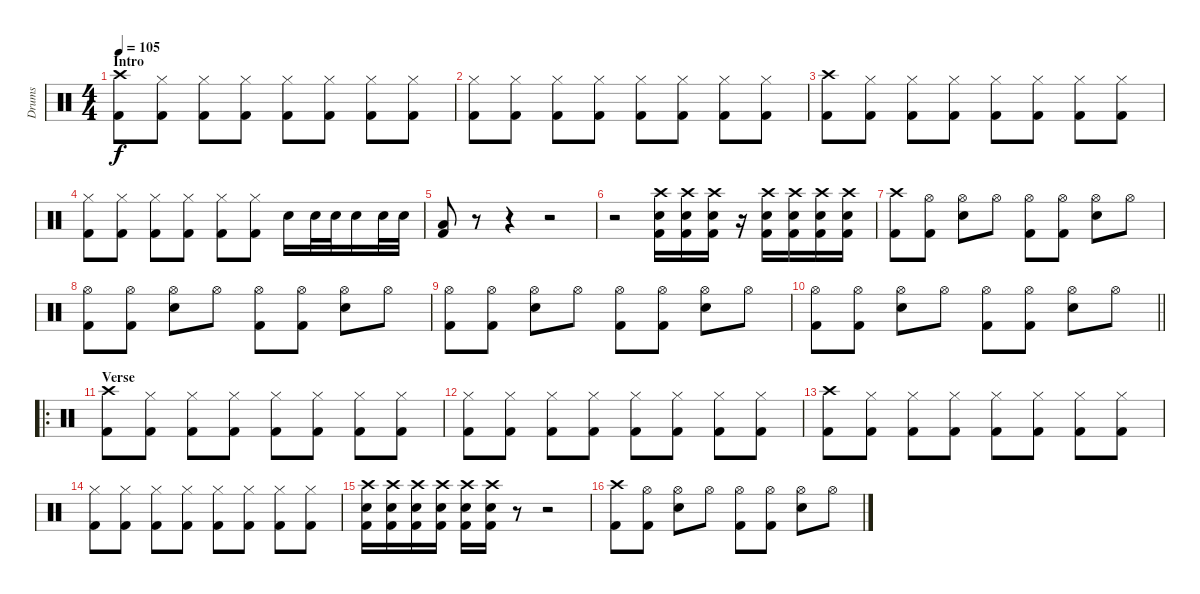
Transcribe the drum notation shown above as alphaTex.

\track ("Drums" "Drums") {instrument percussion}
\staff {score}
\articulation defaults
\ts (4 4)
\section ("" "Intro")
\tempo 105
\clef neutral
\ks c
("Crash high (hit)" "Kick (hit) 2").8{dy f} ("Hi-Hat (closed)" "Kick (hit) 2").8 ("Hi-Hat (closed)" "Kick (hit) 2").8 ("Hi-Hat (closed)" "Kick (hit) 2").8 ("Hi-Hat (closed)" "Kick (hit) 2").8 ("Hi-Hat (closed)" "Kick (hit) 2").8 ("Hi-Hat (closed)" "Kick (hit) 2").8 ("Hi-Hat (closed)" "Kick (hit) 2").8 |
("Hi-Hat (closed)" "Kick (hit) 2").8 ("Hi-Hat (closed)" "Kick (hit) 2").8 ("Hi-Hat (closed)" "Kick (hit) 2").8 ("Hi-Hat (closed)" "Kick (hit) 2").8 ("Hi-Hat (closed)" "Kick (hit) 2").8 ("Hi-Hat (closed)" "Kick (hit) 2").8 ("Hi-Hat (closed)" "Kick (hit) 2").8 ("Hi-Hat (closed)" "Kick (hit) 2").8 |
("Crash high (hit)" "Kick (hit) 2").8 ("Hi-Hat (closed)" "Kick (hit) 2").8 ("Hi-Hat (closed)" "Kick (hit) 2").8 ("Hi-Hat (closed)" "Kick (hit) 2").8 ("Hi-Hat (closed)" "Kick (hit) 2").8 ("Hi-Hat (closed)" "Kick (hit) 2").8 ("Hi-Hat (closed)" "Kick (hit) 2").8 ("Hi-Hat (closed)" "Kick (hit) 2").8 |
("Hi-Hat (closed)" "Kick (hit) 2").8 ("Hi-Hat (closed)" "Kick (hit) 2").8 ("Hi-Hat (closed)" "Kick (hit) 2").8 ("Hi-Hat (closed)" "Kick (hit) 2").8 ("Hi-Hat (closed)" "Kick (hit) 2").8 ("Hi-Hat (closed)" "Kick (hit) 2").8 "Electric Snare (hit)".16 "Electric Snare (hit)".32 "Electric Snare (hit)".32 "Electric Snare (hit)".16 "Electric Snare (hit)".32 "Electric Snare (hit)".32 |
("Low Floor Tom (hit)" "Kick (hit) 2").8 r.8 r.4 r.2 |
r.2 ("Crash high (hit)" "Electric Snare (hit)" "Kick (hit) 2").16 ("Crash high (hit)" "Electric Snare (hit)" "Kick (hit) 2").16 ("Crash high (hit)" "Electric Snare (hit)" "Kick (hit) 2").16 r.16 ("Crash high (hit)" "Electric Snare (hit)" "Kick (hit) 2").16 ("Crash high (hit)" "Electric Snare (hit)" "Kick (hit) 2").16 ("Crash high (hit)" "Electric Snare (hit)" "Kick (hit) 2").16 ("Crash high (hit)" "Electric Snare (hit)" "Kick (hit) 2").16 |
("Crash high (hit)" "Kick (hit) 2").8 ("Hi-Hat (open)" "Kick (hit) 2").8 ("Hi-Hat (open)" "Electric Snare (hit)").8 "Hi-Hat (open)".8 ("Hi-Hat (open)" "Kick (hit) 2").8 ("Hi-Hat (open)" "Kick (hit) 2").8 ("Hi-Hat (open)" "Electric Snare (hit)").8 "Hi-Hat (open)".8 |
("Hi-Hat (open)" "Kick (hit) 2").8 ("Hi-Hat (open)" "Kick (hit) 2").8 ("Hi-Hat (open)" "Electric Snare (hit)").8 "Hi-Hat (open)".8 ("Hi-Hat (open)" "Kick (hit) 2").8 ("Hi-Hat (open)" "Kick (hit) 2").8 ("Hi-Hat (open)" "Electric Snare (hit)").8 "Hi-Hat (open)".8 |
("Hi-Hat (open)" "Kick (hit) 2").8 ("Hi-Hat (open)" "Kick (hit) 2").8 ("Hi-Hat (open)" "Electric Snare (hit)").8 "Hi-Hat (open)".8 ("Hi-Hat (open)" "Kick (hit) 2").8 ("Hi-Hat (open)" "Kick (hit) 2").8 ("Hi-Hat (open)" "Electric Snare (hit)").8 "Hi-Hat (open)".8 |
\barLineRight lightlight
("Hi-Hat (open)" "Kick (hit) 2").8 ("Hi-Hat (open)" "Kick (hit) 2").8 ("Hi-Hat (open)" "Electric Snare (hit)").8 "Hi-Hat (open)".8 ("Hi-Hat (open)" "Kick (hit) 2").8 ("Hi-Hat (open)" "Kick (hit) 2").8 ("Hi-Hat (open)" "Electric Snare (hit)").8 "Hi-Hat (open)".8 |
\ro
\section ("" "Verse")
("Crash high (hit)" "Kick (hit) 2").8 ("Hi-Hat (closed)" "Kick (hit) 2").8 ("Hi-Hat (closed)" "Kick (hit) 2").8 ("Hi-Hat (closed)" "Kick (hit) 2").8 ("Hi-Hat (closed)" "Kick (hit) 2").8 ("Hi-Hat (closed)" "Kick (hit) 2").8 ("Hi-Hat (closed)" "Kick (hit) 2").8 ("Hi-Hat (closed)" "Kick (hit) 2").8 |
("Hi-Hat (closed)" "Kick (hit) 2").8 ("Hi-Hat (closed)" "Kick (hit) 2").8 ("Hi-Hat (closed)" "Kick (hit) 2").8 ("Hi-Hat (closed)" "Kick (hit) 2").8 ("Hi-Hat (closed)" "Kick (hit) 2").8 ("Hi-Hat (closed)" "Kick (hit) 2").8 ("Hi-Hat (closed)" "Kick (hit) 2").8 ("Hi-Hat (closed)" "Kick (hit) 2").8 |
("Crash high (hit)" "Kick (hit) 2").8 ("Hi-Hat (closed)" "Kick (hit) 2").8 ("Hi-Hat (closed)" "Kick (hit) 2").8 ("Hi-Hat (closed)" "Kick (hit) 2").8 ("Hi-Hat (closed)" "Kick (hit) 2").8 ("Hi-Hat (closed)" "Kick (hit) 2").8 ("Hi-Hat (closed)" "Kick (hit) 2").8 ("Hi-Hat (closed)" "Kick (hit) 2").8 |
("Hi-Hat (closed)" "Kick (hit) 2").8 ("Hi-Hat (closed)" "Kick (hit) 2").8 ("Hi-Hat (closed)" "Kick (hit) 2").8 ("Hi-Hat (closed)" "Kick (hit) 2").8 ("Hi-Hat (closed)" "Kick (hit) 2").8 ("Hi-Hat (closed)" "Kick (hit) 2").8 ("Hi-Hat (closed)" "Kick (hit) 2").8 ("Hi-Hat (closed)" "Kick (hit) 2").8 |
("Crash high (hit)" "Electric Snare (hit)" "Kick (hit) 2").16 ("Crash high (hit)" "Electric Snare (hit)" "Kick (hit) 2").16 ("Crash high (hit)" "Electric Snare (hit)" "Kick (hit) 2").16 ("Crash high (hit)" "Electric Snare (hit)" "Kick (hit) 2").16 ("Crash high (hit)" "Electric Snare (hit)" "Kick (hit) 2").16 ("Crash high (hit)" "Electric Snare (hit)" "Kick (hit) 2").16 r.8 r.2 |
("Crash high (hit)" "Kick (hit) 2").8 ("Hi-Hat (open)" "Kick (hit) 2").8 ("Hi-Hat (open)" "Electric Snare (hit)").8 "Hi-Hat (open)".8 ("Hi-Hat (open)" "Kick (hit) 2").8 ("Hi-Hat (open)" "Kick (hit) 2").8 ("Hi-Hat (open)" "Electric Snare (hit)").8 "Hi-Hat (open)".8
